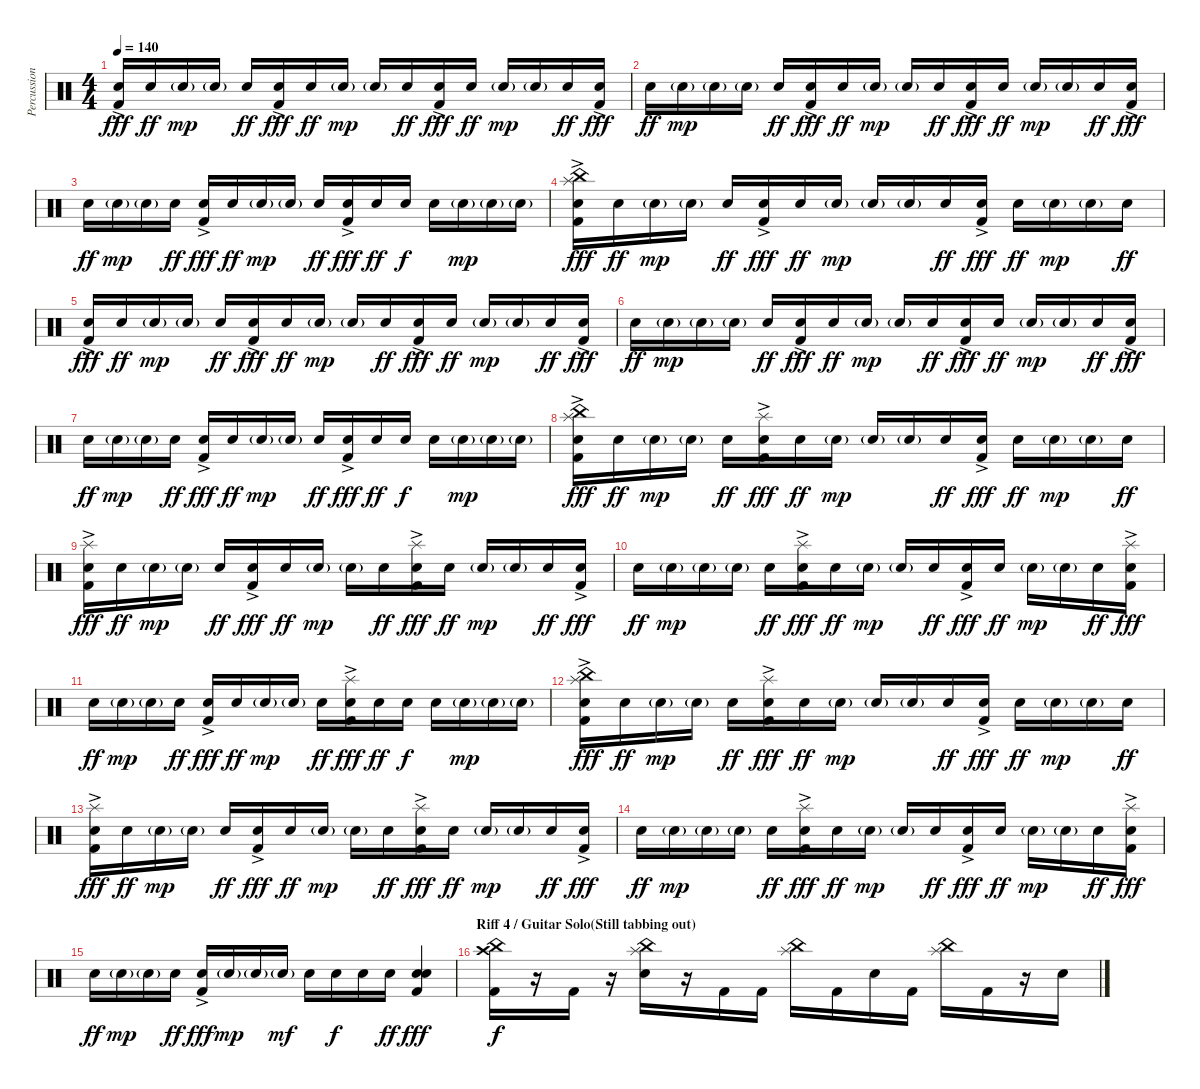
\track ("Percussion" "Percussion") {instrument percussion}
\staff {score}
\articulation defaults
\ts (4 4)
\tempo 140
\clef neutral
\ks c
("Electric Snare (hit)"{ac} "Kick (hit) 2").16{dy fff} "Electric Snare (hit)".16{dy ff} "Electric Snare (hit)"{g}.16{dy mp} "Electric Snare (hit)"{g}.16 "Electric Snare (hit)".16{dy ff} ("Electric Snare (hit)"{ac} "Kick (hit) 2").16{dy fff} "Electric Snare (hit)".16{dy ff} "Electric Snare (hit)"{g}.16{dy mp} "Electric Snare (hit)"{g}.16 "Electric Snare (hit)".16{dy ff} ("Electric Snare (hit)"{ac} "Kick (hit) 2").16{dy fff} "Electric Snare (hit)".16{dy ff} "Electric Snare (hit)"{g}.16{dy mp} "Electric Snare (hit)"{g}.16 "Electric Snare (hit)".16{dy ff} ("Electric Snare (hit)"{ac} "Kick (hit) 2").16{dy fff} |
"Electric Snare (hit)".16{dy ff} "Electric Snare (hit)"{g}.16{dy mp} "Electric Snare (hit)"{g}.16 "Electric Snare (hit)"{g}.16 "Electric Snare (hit)".16{dy ff} ("Electric Snare (hit)"{ac} "Kick (hit) 2").16{dy fff} "Electric Snare (hit)".16{dy ff} "Electric Snare (hit)"{g}.16{dy mp} "Electric Snare (hit)"{g}.16 "Electric Snare (hit)".16{dy ff} ("Electric Snare (hit)"{ac} "Kick (hit) 2").16{dy fff} "Electric Snare (hit)".16{dy ff} "Electric Snare (hit)"{g}.16{dy mp} "Electric Snare (hit)"{g}.16 "Electric Snare (hit)".16{dy ff} ("Electric Snare (hit)"{ac} "Kick (hit) 2").16{dy fff} |
"Electric Snare (hit)".16{dy ff} "Electric Snare (hit)"{g}.16{dy mp} "Electric Snare (hit)"{g}.16 "Electric Snare (hit)".16{dy ff} ("Electric Snare (hit)"{ac} "Kick (hit) 2").16{dy fff} "Electric Snare (hit)".16{dy ff} "Electric Snare (hit)"{g}.16{dy mp} "Electric Snare (hit)"{g}.16 "Electric Snare (hit)".16{dy ff} ("Electric Snare (hit)"{ac} "Kick (hit) 2").16{dy fff} "Electric Snare (hit)".16{dy ff} "Electric Snare (hit)".16{dy f} "Electric Snare (hit)".16 "Electric Snare (hit)"{g}.16{dy mp} "Electric Snare (hit)"{g}.16 "Electric Snare (hit)"{g}.16 |
("Splash (hit)" "China (hit)" "Electric Snare (hit)"{ac} "Kick (hit) 2").16{dy fff} "Electric Snare (hit)".16{dy ff} "Electric Snare (hit)"{g}.16{dy mp} "Electric Snare (hit)"{g}.16 "Electric Snare (hit)".16{dy ff} ("Electric Snare (hit)"{ac} "Kick (hit) 2").16{dy fff} "Electric Snare (hit)".16{dy ff} "Electric Snare (hit)"{g}.16{dy mp} "Electric Snare (hit)"{g}.16 "Electric Snare (hit)"{g}.16 "Electric Snare (hit)".16{dy ff} ("Electric Snare (hit)"{ac} "Kick (hit) 2").16{dy fff} "Electric Snare (hit)".16{dy ff} "Electric Snare (hit)"{g}.16{dy mp} "Electric Snare (hit)"{g}.16 "Electric Snare (hit)".16{dy ff} |
("Electric Snare (hit)"{ac} "Kick (hit) 2").16{dy fff} "Electric Snare (hit)".16{dy ff} "Electric Snare (hit)"{g}.16{dy mp} "Electric Snare (hit)"{g}.16 "Electric Snare (hit)".16{dy ff} ("Electric Snare (hit)"{ac} "Kick (hit) 2").16{dy fff} "Electric Snare (hit)".16{dy ff} "Electric Snare (hit)"{g}.16{dy mp} "Electric Snare (hit)"{g}.16 "Electric Snare (hit)".16{dy ff} ("Electric Snare (hit)"{ac} "Kick (hit) 2").16{dy fff} "Electric Snare (hit)".16{dy ff} "Electric Snare (hit)"{g}.16{dy mp} "Electric Snare (hit)"{g}.16 "Electric Snare (hit)".16{dy ff} ("Electric Snare (hit)"{ac} "Kick (hit) 2").16{dy fff} |
"Electric Snare (hit)".16{dy ff} "Electric Snare (hit)"{g}.16{dy mp} "Electric Snare (hit)"{g}.16 "Electric Snare (hit)"{g}.16 "Electric Snare (hit)".16{dy ff} ("Electric Snare (hit)"{ac} "Kick (hit) 2").16{dy fff} "Electric Snare (hit)".16{dy ff} "Electric Snare (hit)"{g}.16{dy mp} "Electric Snare (hit)"{g}.16 "Electric Snare (hit)".16{dy ff} ("Electric Snare (hit)"{ac} "Kick (hit) 2").16{dy fff} "Electric Snare (hit)".16{dy ff} "Electric Snare (hit)"{g}.16{dy mp} "Electric Snare (hit)"{g}.16 "Electric Snare (hit)".16{dy ff} ("Electric Snare (hit)"{ac} "Kick (hit) 2").16{dy fff} |
"Electric Snare (hit)".16{dy ff} "Electric Snare (hit)"{g}.16{dy mp} "Electric Snare (hit)"{g}.16 "Electric Snare (hit)".16{dy ff} ("Electric Snare (hit)"{ac} "Kick (hit) 2").16{dy fff} "Electric Snare (hit)".16{dy ff} "Electric Snare (hit)"{g}.16{dy mp} "Electric Snare (hit)"{g}.16 "Electric Snare (hit)".16{dy ff} ("Electric Snare (hit)"{ac} "Kick (hit) 2").16{dy fff} "Electric Snare (hit)".16{dy ff} "Electric Snare (hit)".16{dy f} "Electric Snare (hit)".16 "Electric Snare (hit)"{g}.16{dy mp} "Electric Snare (hit)"{g}.16 "Electric Snare (hit)"{g}.16 |
("Splash (hit)" "China (hit)" "Electric Snare (hit)"{ac} "Kick (hit) 2").16{dy fff} "Electric Snare (hit)".16{dy ff} "Electric Snare (hit)"{g}.16{dy mp} "Electric Snare (hit)"{g}.16 "Electric Snare (hit)".16{dy ff} ("Splash (hit)" "Electric Snare (hit)"{ac} "Kick (hit) 2").16{dy fff} "Electric Snare (hit)".16{dy ff} "Electric Snare (hit)"{g}.16{dy mp} "Electric Snare (hit)"{g}.16 "Electric Snare (hit)"{g}.16 "Electric Snare (hit)".16{dy ff} ("Electric Snare (hit)"{ac} "Kick (hit) 2").16{dy fff} "Electric Snare (hit)".16{dy ff} "Electric Snare (hit)"{g}.16{dy mp} "Electric Snare (hit)"{g}.16 "Electric Snare (hit)".16{dy ff} |
("Splash (hit)" "Electric Snare (hit)"{ac} "Kick (hit) 2").16{dy fff} "Electric Snare (hit)".16{dy ff} "Electric Snare (hit)"{g}.16{dy mp} "Electric Snare (hit)"{g}.16 "Electric Snare (hit)".16{dy ff} ("Electric Snare (hit)"{ac} "Kick (hit) 2").16{dy fff} "Electric Snare (hit)".16{dy ff} "Electric Snare (hit)"{g}.16{dy mp} "Electric Snare (hit)"{g}.16 "Electric Snare (hit)".16{dy ff} ("Splash (hit)" "Electric Snare (hit)"{ac} "Kick (hit) 2").16{dy fff} "Electric Snare (hit)".16{dy ff} "Electric Snare (hit)"{g}.16{dy mp} "Electric Snare (hit)"{g}.16 "Electric Snare (hit)".16{dy ff} ("Electric Snare (hit)"{ac} "Kick (hit) 2").16{dy fff} |
"Electric Snare (hit)".16{dy ff} "Electric Snare (hit)"{g}.16{dy mp} "Electric Snare (hit)"{g}.16 "Electric Snare (hit)"{g}.16 "Electric Snare (hit)".16{dy ff} ("Splash (hit)" "Electric Snare (hit)"{ac} "Kick (hit) 2").16{dy fff} "Electric Snare (hit)".16{dy ff} "Electric Snare (hit)"{g}.16{dy mp} "Electric Snare (hit)"{g}.16 "Electric Snare (hit)".16{dy ff} ("Electric Snare (hit)"{ac} "Kick (hit) 2").16{dy fff} "Electric Snare (hit)".16{dy ff} "Electric Snare (hit)"{g}.16{dy mp} "Electric Snare (hit)"{g}.16 "Electric Snare (hit)".16{dy ff} ("Splash (hit)" "Electric Snare (hit)"{ac} "Kick (hit) 2").16{dy fff} |
"Electric Snare (hit)".16{dy ff} "Electric Snare (hit)"{g}.16{dy mp} "Electric Snare (hit)"{g}.16 "Electric Snare (hit)".16{dy ff} ("Electric Snare (hit)"{ac} "Kick (hit) 2").16{dy fff} "Electric Snare (hit)".16{dy ff} "Electric Snare (hit)"{g}.16{dy mp} "Electric Snare (hit)"{g}.16 "Electric Snare (hit)".16{dy ff} ("Splash (hit)" "Electric Snare (hit)"{ac} "Kick (hit) 2").16{dy fff} "Electric Snare (hit)".16{dy ff} "Electric Snare (hit)".16{dy f} "Electric Snare (hit)".16 "Electric Snare (hit)"{g}.16{dy mp} "Electric Snare (hit)"{g}.16 "Electric Snare (hit)"{g}.16 |
("Splash (hit)" "China (hit)" "Electric Snare (hit)"{ac} "Kick (hit) 2").16{dy fff} "Electric Snare (hit)".16{dy ff} "Electric Snare (hit)"{g}.16{dy mp} "Electric Snare (hit)"{g}.16 "Electric Snare (hit)".16{dy ff} ("Splash (hit)" "Electric Snare (hit)"{ac} "Kick (hit) 2").16{dy fff} "Electric Snare (hit)".16{dy ff} "Electric Snare (hit)"{g}.16{dy mp} "Electric Snare (hit)"{g}.16 "Electric Snare (hit)"{g}.16 "Electric Snare (hit)".16{dy ff} ("Electric Snare (hit)"{ac} "Kick (hit) 2").16{dy fff} "Electric Snare (hit)".16{dy ff} "Electric Snare (hit)"{g}.16{dy mp} "Electric Snare (hit)"{g}.16 "Electric Snare (hit)".16{dy ff} |
("Splash (hit)" "Electric Snare (hit)"{ac} "Kick (hit) 2").16{dy fff} "Electric Snare (hit)".16{dy ff} "Electric Snare (hit)"{g}.16{dy mp} "Electric Snare (hit)"{g}.16 "Electric Snare (hit)".16{dy ff} ("Electric Snare (hit)"{ac} "Kick (hit) 2").16{dy fff} "Electric Snare (hit)".16{dy ff} "Electric Snare (hit)"{g}.16{dy mp} "Electric Snare (hit)"{g}.16 "Electric Snare (hit)".16{dy ff} ("Splash (hit)" "Electric Snare (hit)"{ac} "Kick (hit) 2").16{dy fff} "Electric Snare (hit)".16{dy ff} "Electric Snare (hit)"{g}.16{dy mp} "Electric Snare (hit)"{g}.16 "Electric Snare (hit)".16{dy ff} ("Electric Snare (hit)"{ac} "Kick (hit) 2").16{dy fff} |
"Electric Snare (hit)".16{dy ff} "Electric Snare (hit)"{g}.16{dy mp} "Electric Snare (hit)"{g}.16 "Electric Snare (hit)"{g}.16 "Electric Snare (hit)".16{dy ff} ("Splash (hit)" "Electric Snare (hit)"{ac} "Kick (hit) 2").16{dy fff} "Electric Snare (hit)".16{dy ff} "Electric Snare (hit)"{g}.16{dy mp} "Electric Snare (hit)"{g}.16 "Electric Snare (hit)".16{dy ff} ("Electric Snare (hit)"{ac} "Kick (hit) 2").16{dy fff} "Electric Snare (hit)".16{dy ff} "Electric Snare (hit)"{g}.16{dy mp} "Electric Snare (hit)"{g}.16 "Electric Snare (hit)".16{dy ff} ("Splash (hit)" "Electric Snare (hit)"{ac} "Kick (hit) 2").16{dy fff} |
"Electric Snare (hit)".16{dy ff} "Electric Snare (hit)"{g}.16{dy mp} "Electric Snare (hit)"{g}.16 "Electric Snare (hit)".16{dy ff} ("Electric Snare (hit)"{ac} "Kick (hit) 2").16{dy fff} "Electric Snare (hit)"{g}.16{dy mp} "Electric Snare (hit)"{g}.16 "Electric Snare (hit)"{g}.16{dy mf} "Electric Snare (hit)".16 "Electric Snare (hit)".16{dy f} "Electric Snare (hit)".16 "Electric Snare (hit)".16{dy ff} ("Electric Snare (hit)" "Electric Snare (hit)" "Kick (hit) 2").4{dy fff} |
\section ("" "Riff 4 / Guitar Solo(Still tabbing out)")
("China (hit)" "Crash high (hit)" "Kick (hit) 2").16{dy f} r.16 "Kick (hit) 2".16 r.16 ("Splash (hit)" "China (hit)" "Electric Snare (hit)").16 r.16 "Kick (hit) 2".16 "Kick (hit) 2".16 ("Splash (hit)" "China (hit)").16 "Kick (hit) 2".16 "Electric Snare (hit)".16 "Kick (hit) 2".16 ("Splash (hit)" "China (hit)").16 "Kick (hit) 2".16 r.16 "Electric Snare (hit)".16
